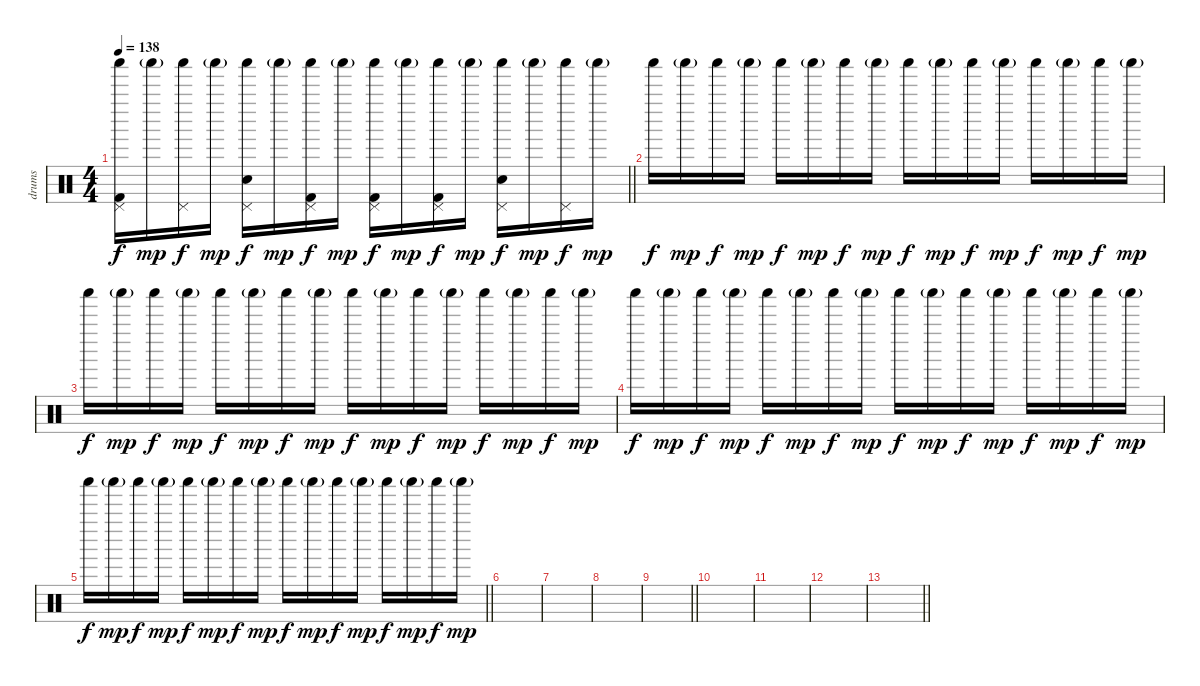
\track ("drums" "drums") {instrument percussion}
\staff {score}
\articulation defaults
\ts (4 4)
\tempo 138
\clef neutral
\barLineRight lightlight
\ks c
("Kick (hit) 2" "Pedal Hi-Hat (hit)" "Shaker (hit)").16{dy f} "Shaker (hit)"{g}.16{dy mp} ("Pedal Hi-Hat (hit)" "Shaker (hit)").16{dy f} "Shaker (hit)"{g}.16{dy mp} ("Electric Snare (hit)" "Pedal Hi-Hat (hit)" "Shaker (hit)").16{dy f} "Shaker (hit)"{g}.16{dy mp} ("Kick (hit) 2" "Pedal Hi-Hat (hit)" "Shaker (hit)").16{dy f} "Shaker (hit)"{g}.16{dy mp} ("Kick (hit) 2" "Pedal Hi-Hat (hit)" "Shaker (hit)").16{dy f} "Shaker (hit)"{g}.16{dy mp} ("Kick (hit) 2" "Pedal Hi-Hat (hit)" "Shaker (hit)").16{dy f} "Shaker (hit)"{g}.16{dy mp} ("Electric Snare (hit)" "Pedal Hi-Hat (hit)" "Shaker (hit)").16{dy f} "Shaker (hit)"{g}.16{dy mp} ("Pedal Hi-Hat (hit)" "Shaker (hit)").16{dy f} "Shaker (hit)"{g}.16{dy mp} |
"Shaker (hit)".16{dy f} "Shaker (hit)"{g}.16{dy mp} "Shaker (hit)".16{dy f} "Shaker (hit)"{g}.16{dy mp} "Shaker (hit)".16{dy f} "Shaker (hit)"{g}.16{dy mp} "Shaker (hit)".16{dy f} "Shaker (hit)"{g}.16{dy mp} "Shaker (hit)".16{dy f} "Shaker (hit)"{g}.16{dy mp} "Shaker (hit)".16{dy f} "Shaker (hit)"{g}.16{dy mp} "Shaker (hit)".16{dy f} "Shaker (hit)"{g}.16{dy mp} "Shaker (hit)".16{dy f} "Shaker (hit)"{g}.16{dy mp} |
"Shaker (hit)".16{dy f} "Shaker (hit)"{g}.16{dy mp} "Shaker (hit)".16{dy f} "Shaker (hit)"{g}.16{dy mp} "Shaker (hit)".16{dy f} "Shaker (hit)"{g}.16{dy mp} "Shaker (hit)".16{dy f} "Shaker (hit)"{g}.16{dy mp} "Shaker (hit)".16{dy f} "Shaker (hit)"{g}.16{dy mp} "Shaker (hit)".16{dy f} "Shaker (hit)"{g}.16{dy mp} "Shaker (hit)".16{dy f} "Shaker (hit)"{g}.16{dy mp} "Shaker (hit)".16{dy f} "Shaker (hit)"{g}.16{dy mp} |
"Shaker (hit)".16{dy f} "Shaker (hit)"{g}.16{dy mp} "Shaker (hit)".16{dy f} "Shaker (hit)"{g}.16{dy mp} "Shaker (hit)".16{dy f} "Shaker (hit)"{g}.16{dy mp} "Shaker (hit)".16{dy f} "Shaker (hit)"{g}.16{dy mp} "Shaker (hit)".16{dy f} "Shaker (hit)"{g}.16{dy mp} "Shaker (hit)".16{dy f} "Shaker (hit)"{g}.16{dy mp} "Shaker (hit)".16{dy f} "Shaker (hit)"{g}.16{dy mp} "Shaker (hit)".16{dy f} "Shaker (hit)"{g}.16{dy mp} |
\barLineRight lightlight "Shaker (hit)".16{dy f} "Shaker (hit)"{g}.16{dy mp} "Shaker (hit)".16{dy f} "Shaker (hit)"{g}.16{dy mp} "Shaker (hit)".16{dy f} "Shaker (hit)"{g}.16{dy mp} "Shaker (hit)".16{dy f} "Shaker (hit)"{g}.16{dy mp} "Shaker (hit)".16{dy f} "Shaker (hit)"{g}.16{dy mp} "Shaker (hit)".16{dy f} "Shaker (hit)"{g}.16{dy mp} "Shaker (hit)".16{dy f} "Shaker (hit)"{g}.16{dy mp} "Shaker (hit)".16{dy f} "Shaker (hit)"{g}.16{dy mp}
|
|
|
|
\barLineRight lightlight
|
|
|
|
\barLineRight lightlight
